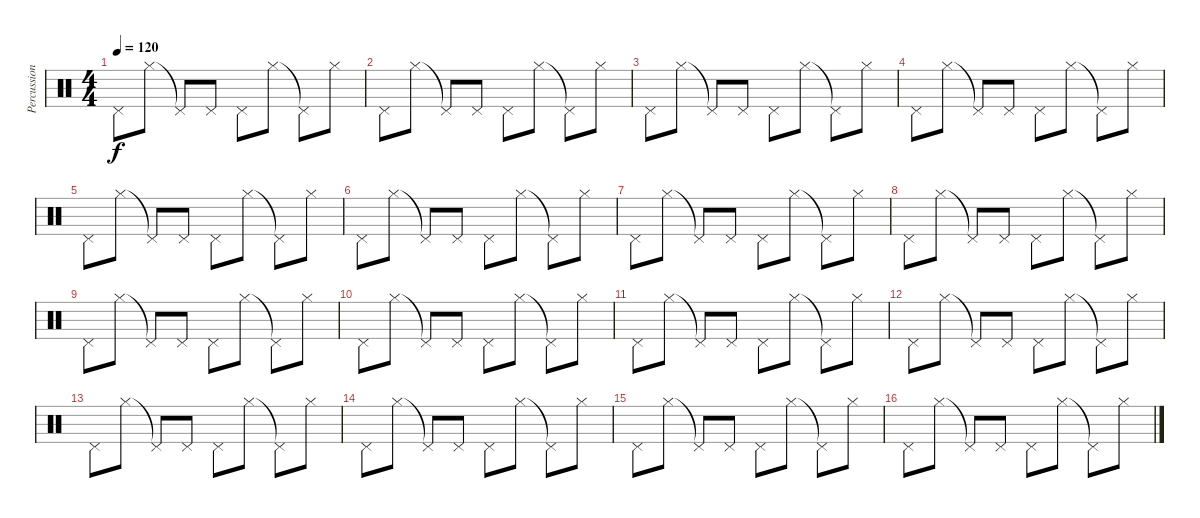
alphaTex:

\track ("Percussions" "Percussion") {instrument percussion}
\staff {score}
\articulation defaults
\ts (4 4)
\tempo 120
\clef neutral
\ks c "Pedal Hi-Hat (hit)".8{dy f} "Hi-Hat (closed)".8 "Pedal Hi-Hat (hit)"{t}.8 "Pedal Hi-Hat (hit)".8 "Pedal Hi-Hat (hit)".8 "Hi-Hat (closed)".8 "Pedal Hi-Hat (hit)"{t}.8 "Hi-Hat (closed)".8
|
"Pedal Hi-Hat (hit)".8 "Hi-Hat (closed)".8 "Pedal Hi-Hat (hit)"{t}.8 "Pedal Hi-Hat (hit)".8 "Pedal Hi-Hat (hit)".8 "Hi-Hat (closed)".8 "Pedal Hi-Hat (hit)"{t}.8 "Hi-Hat (closed)".8 |
"Pedal Hi-Hat (hit)".8 "Hi-Hat (closed)".8 "Pedal Hi-Hat (hit)"{t}.8 "Pedal Hi-Hat (hit)".8 "Pedal Hi-Hat (hit)".8 "Hi-Hat (closed)".8 "Pedal Hi-Hat (hit)"{t}.8 "Hi-Hat (closed)".8 |
"Pedal Hi-Hat (hit)".8 "Hi-Hat (closed)".8 "Pedal Hi-Hat (hit)"{t}.8 "Pedal Hi-Hat (hit)".8 "Pedal Hi-Hat (hit)".8 "Hi-Hat (closed)".8 "Pedal Hi-Hat (hit)"{t}.8 "Hi-Hat (closed)".8 |
"Pedal Hi-Hat (hit)".8 "Hi-Hat (closed)".8 "Pedal Hi-Hat (hit)"{t}.8 "Pedal Hi-Hat (hit)".8 "Pedal Hi-Hat (hit)".8 "Hi-Hat (closed)".8 "Pedal Hi-Hat (hit)"{t}.8 "Hi-Hat (closed)".8 |
"Pedal Hi-Hat (hit)".8 "Hi-Hat (closed)".8 "Pedal Hi-Hat (hit)"{t}.8 "Pedal Hi-Hat (hit)".8 "Pedal Hi-Hat (hit)".8 "Hi-Hat (closed)".8 "Pedal Hi-Hat (hit)"{t}.8 "Hi-Hat (closed)".8 |
"Pedal Hi-Hat (hit)".8 "Hi-Hat (closed)".8 "Pedal Hi-Hat (hit)"{t}.8 "Pedal Hi-Hat (hit)".8 "Pedal Hi-Hat (hit)".8 "Hi-Hat (closed)".8 "Pedal Hi-Hat (hit)"{t}.8 "Hi-Hat (closed)".8 |
"Pedal Hi-Hat (hit)".8 "Hi-Hat (closed)".8 "Pedal Hi-Hat (hit)"{t}.8 "Pedal Hi-Hat (hit)".8 "Pedal Hi-Hat (hit)".8 "Hi-Hat (closed)".8 "Pedal Hi-Hat (hit)"{t}.8 "Hi-Hat (closed)".8 |
"Pedal Hi-Hat (hit)".8 "Hi-Hat (closed)".8 "Pedal Hi-Hat (hit)"{t}.8 "Pedal Hi-Hat (hit)".8 "Pedal Hi-Hat (hit)".8 "Hi-Hat (closed)".8 "Pedal Hi-Hat (hit)"{t}.8 "Hi-Hat (closed)".8 |
"Pedal Hi-Hat (hit)".8 "Hi-Hat (closed)".8 "Pedal Hi-Hat (hit)"{t}.8 "Pedal Hi-Hat (hit)".8 "Pedal Hi-Hat (hit)".8 "Hi-Hat (closed)".8 "Pedal Hi-Hat (hit)"{t}.8 "Hi-Hat (closed)".8 |
"Pedal Hi-Hat (hit)".8 "Hi-Hat (closed)".8 "Pedal Hi-Hat (hit)"{t}.8 "Pedal Hi-Hat (hit)".8 "Pedal Hi-Hat (hit)".8 "Hi-Hat (closed)".8 "Pedal Hi-Hat (hit)"{t}.8 "Hi-Hat (closed)".8 |
"Pedal Hi-Hat (hit)".8 "Hi-Hat (closed)".8 "Pedal Hi-Hat (hit)"{t}.8 "Pedal Hi-Hat (hit)".8 "Pedal Hi-Hat (hit)".8 "Hi-Hat (closed)".8 "Pedal Hi-Hat (hit)"{t}.8 "Hi-Hat (closed)".8 |
"Pedal Hi-Hat (hit)".8 "Hi-Hat (closed)".8 "Pedal Hi-Hat (hit)"{t}.8 "Pedal Hi-Hat (hit)".8 "Pedal Hi-Hat (hit)".8 "Hi-Hat (closed)".8 "Pedal Hi-Hat (hit)"{t}.8 "Hi-Hat (closed)".8 |
"Pedal Hi-Hat (hit)".8 "Hi-Hat (closed)".8 "Pedal Hi-Hat (hit)"{t}.8 "Pedal Hi-Hat (hit)".8 "Pedal Hi-Hat (hit)".8 "Hi-Hat (closed)".8 "Pedal Hi-Hat (hit)"{t}.8 "Hi-Hat (closed)".8 |
"Pedal Hi-Hat (hit)".8 "Hi-Hat (closed)".8 "Pedal Hi-Hat (hit)"{t}.8 "Pedal Hi-Hat (hit)".8 "Pedal Hi-Hat (hit)".8 "Hi-Hat (closed)".8 "Pedal Hi-Hat (hit)"{t}.8 "Hi-Hat (closed)".8 |
"Pedal Hi-Hat (hit)".8 "Hi-Hat (closed)".8 "Pedal Hi-Hat (hit)"{t}.8 "Pedal Hi-Hat (hit)".8 "Pedal Hi-Hat (hit)".8 "Hi-Hat (closed)".8 "Pedal Hi-Hat (hit)"{t}.8 "Hi-Hat (closed)".8
